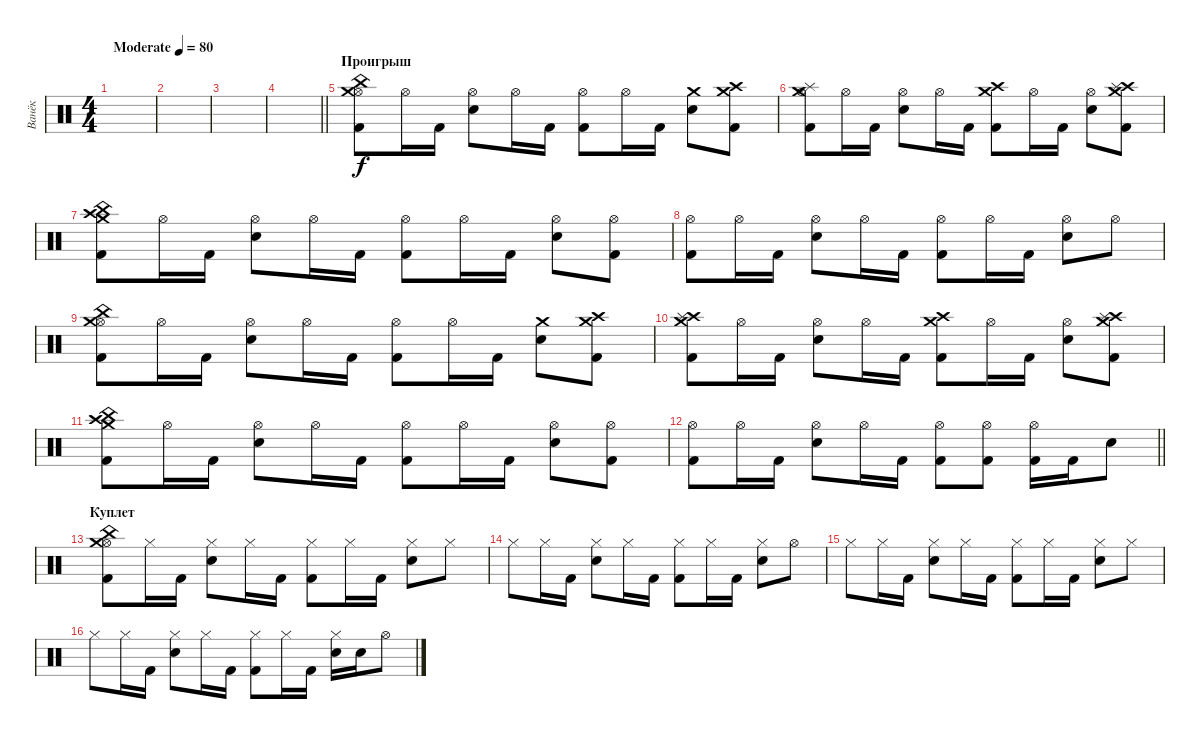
\track ("Ванёк" "Ванёк") {instrument percussion}
\staff {score}
\articulation defaults
\ts (4 4)
\tempo (80 "Moderate")
\clef neutral
\ks c
|
|
|
\barLineRight lightlight
|
\section ("" "Проигрыш")
("Hi-Hat (open)" "Crash medium (hit)" "China (hit)" "Kick (hit) 2").8 "Hi-Hat (open)".16 "Kick (hit) 2".16 ("Hi-Hat (open)" "Snare (hit) 2").8 "Hi-Hat (open)".16 "Kick (hit) 2".16 ("Hi-Hat (open)" "Kick (hit) 2").8 "Hi-Hat (open)".16 "Kick (hit) 2".16 ("Crash medium (hit)" "Snare (hit) 2").8 ("Crash high (hit)" "Crash medium (hit)" "Kick (hit) 2").8 |
("Hi-Hat (open)" "Crash medium (hit)" "Splash (hit)" "Kick (hit) 2").8 "Hi-Hat (open)".16 "Kick (hit) 2".16 ("Hi-Hat (open)" "Snare (hit) 2").8 "Hi-Hat (open)".16 "Kick (hit) 2".16 ("Crash high (hit)" "Crash medium (hit)" "Kick (hit) 2").8 "Hi-Hat (open)".16 "Kick (hit) 2".16 ("Hi-Hat (open)" "Snare (hit) 2").8 ("Crash high (hit)" "Crash medium (hit)" "Splash (hit)" "Kick (hit) 2").8 |
("Crash high (hit)" "Crash medium (hit)" "China (hit)" "Kick (hit) 2").8 "Hi-Hat (open)".16 "Kick (hit) 2".16 ("Hi-Hat (open)" "Snare (hit) 2").8 "Hi-Hat (open)".16 "Kick (hit) 2".16 ("Hi-Hat (open)" "Kick (hit) 2").8 "Hi-Hat (open)".16 "Kick (hit) 2".16 ("Hi-Hat (open)" "Snare (hit) 2").8 ("Hi-Hat (open)" "Kick (hit) 2").8 |
("Hi-Hat (open)" "Kick (hit) 2").8 "Hi-Hat (open)".16 "Kick (hit) 2".16 ("Hi-Hat (open)" "Snare (hit) 2").8 "Hi-Hat (open)".16 "Kick (hit) 2".16 ("Hi-Hat (open)" "Kick (hit) 2").8 "Hi-Hat (open)".16 "Kick (hit) 2".16 ("Hi-Hat (open)" "Snare (hit) 2").8 "Hi-Hat (open)".8 |
("Hi-Hat (open)" "Crash medium (hit)" "China (hit)" "Kick (hit) 2").8 "Hi-Hat (open)".16 "Kick (hit) 2".16 ("Hi-Hat (open)" "Snare (hit) 2").8 "Hi-Hat (open)".16 "Kick (hit) 2".16 ("Hi-Hat (open)" "Kick (hit) 2").8 "Hi-Hat (open)".16 "Kick (hit) 2".16 ("Crash medium (hit)" "Snare (hit) 2").8 ("Crash high (hit)" "Crash medium (hit)" "Kick (hit) 2").8 |
("Crash high (hit)" "Crash medium (hit)" "Splash (hit)" "Kick (hit) 2").8 "Hi-Hat (open)".16 "Kick (hit) 2".16 ("Hi-Hat (open)" "Snare (hit) 2").8 "Hi-Hat (open)".16 "Kick (hit) 2".16 ("Crash high (hit)" "Crash medium (hit)" "Kick (hit) 2").8 "Hi-Hat (open)".16 "Kick (hit) 2".16 ("Hi-Hat (open)" "Snare (hit) 2").8 ("Crash high (hit)" "Crash medium (hit)" "Splash (hit)" "Kick (hit) 2").8 |
("Crash high (hit)" "Crash medium (hit)" "China (hit)" "Kick (hit) 2").8 "Hi-Hat (open)".16 "Kick (hit) 2".16 ("Hi-Hat (open)" "Snare (hit) 2").8 "Hi-Hat (open)".16 "Kick (hit) 2".16 ("Hi-Hat (open)" "Kick (hit) 2").8 "Hi-Hat (open)".16 "Kick (hit) 2".16 ("Hi-Hat (open)" "Snare (hit) 2").8 ("Hi-Hat (open)" "Kick (hit) 2").8 |
\barLineRight lightlight
("Hi-Hat (open)" "Kick (hit) 2").8 "Hi-Hat (open)".16 "Kick (hit) 2".16 ("Hi-Hat (open)" "Snare (hit) 2").8 "Hi-Hat (open)".16 "Kick (hit) 2".16 ("Hi-Hat (open)" "Kick (hit) 2").8 ("Hi-Hat (open)" "Kick (hit) 2").8 ("Hi-Hat (open)" "Kick (hit) 2").16 "Kick (hit) 2".16 "Snare (hit) 2".8 |
\section ("" "Куплет")
("Hi-Hat (open)" "Crash medium (hit)" "China (hit)" "Kick (hit) 2").8 "Hi-Hat (closed)".16 "Kick (hit) 2".16 ("Hi-Hat (closed)" "Snare (hit) 2").8 "Hi-Hat (closed)".16 "Kick (hit) 2".16 ("Hi-Hat (closed)" "Kick (hit) 2").8 "Hi-Hat (closed)".16 "Kick (hit) 2".16 ("Hi-Hat (closed)" "Snare (hit) 2").8 "Hi-Hat (closed)".8 |
"Hi-Hat (closed)".8 "Hi-Hat (closed)".16 "Kick (hit) 2".16 ("Hi-Hat (closed)" "Snare (hit) 2").8 "Hi-Hat (closed)".16 "Kick (hit) 2".16 ("Hi-Hat (closed)" "Kick (hit) 2").8 "Hi-Hat (closed)".16 "Kick (hit) 2".16 ("Hi-Hat (closed)" "Snare (hit) 2").8 "Hi-Hat (open)".8 |
"Hi-Hat (closed)".8 "Hi-Hat (closed)".16 "Kick (hit) 2".16 ("Hi-Hat (closed)" "Snare (hit) 2").8 "Hi-Hat (closed)".16 "Kick (hit) 2".16 ("Hi-Hat (closed)" "Kick (hit) 2").8 "Hi-Hat (closed)".16 "Kick (hit) 2".16 ("Hi-Hat (closed)" "Snare (hit) 2").8 "Hi-Hat (closed)".8 |
"Hi-Hat (closed)".8 "Hi-Hat (closed)".16 "Kick (hit) 2".16 ("Hi-Hat (closed)" "Snare (hit) 2").8 "Hi-Hat (closed)".16 "Kick (hit) 2".16 ("Hi-Hat (closed)" "Kick (hit) 2").8 "Hi-Hat (closed)".16 "Kick (hit) 2".16 ("Hi-Hat (closed)" "Snare (hit) 2").16 "Snare (hit) 2".16 "Hi-Hat (open)".8
